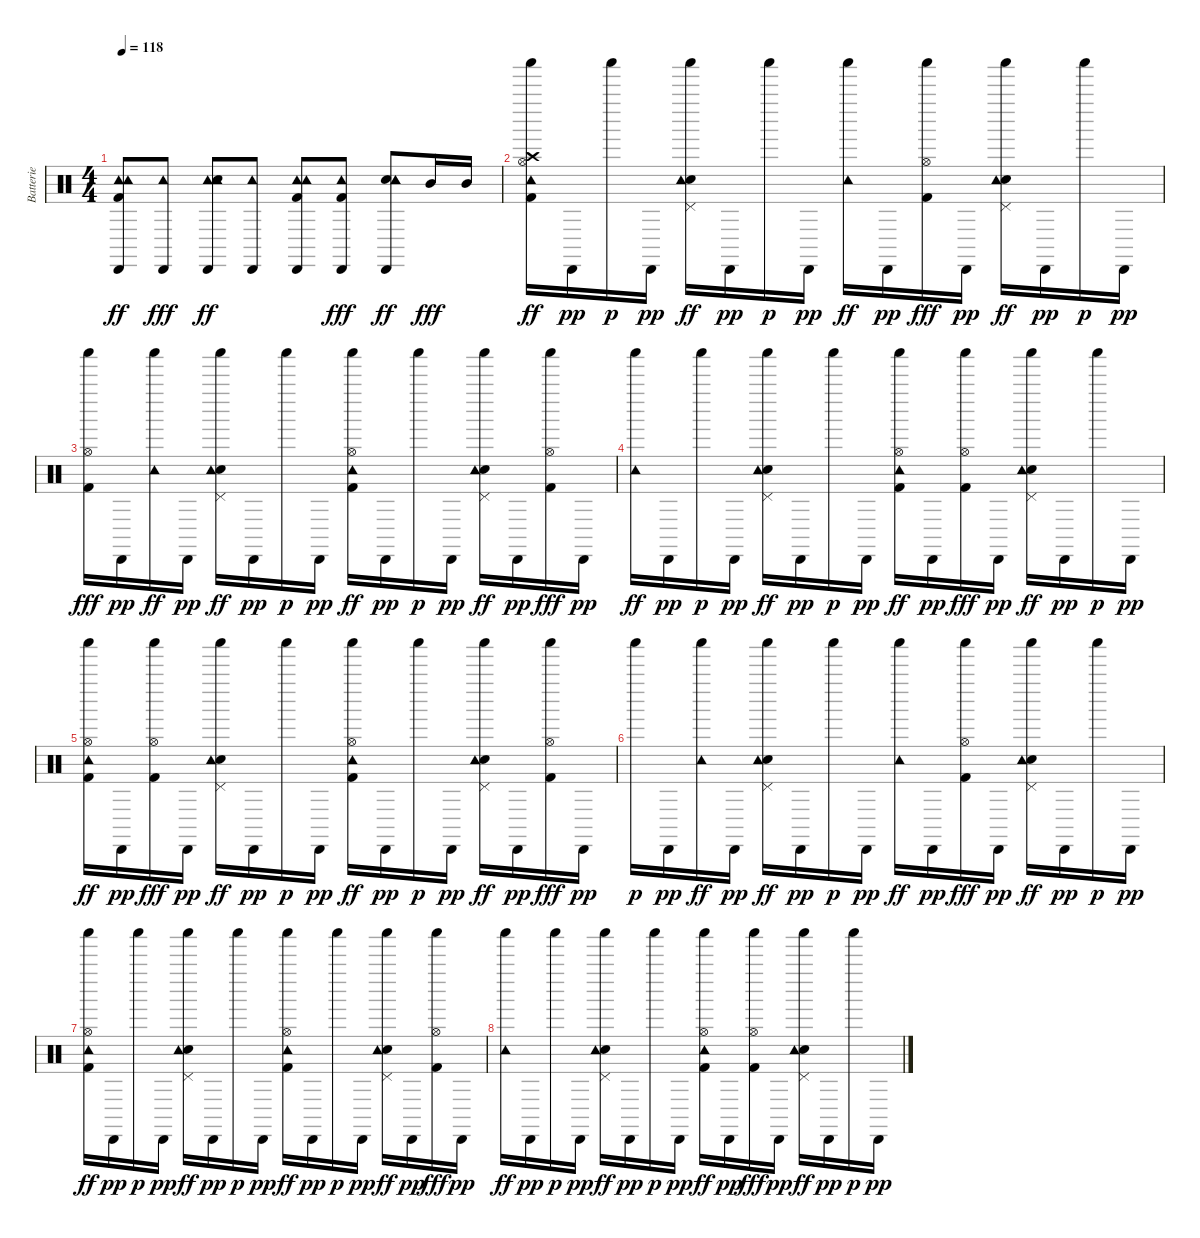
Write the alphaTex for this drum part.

\track ("Batterie" "Batterie") {instrument percussion}
\staff {score}
\articulation defaults
\ts (4 4)
\tempo 118
\clef neutral
\ks c
("Kick (hit) 2" "Cabasa (hit)" "Tambourine (hit)" "Tambourine (hit)").8{dy ff} ("Cabasa (hit)" "Tambourine (hit)").8{dy fff} ("Tambourine (hit)" "Cabasa (hit)" "Snare (hit) 2" "Tambourine (hit)").8{dy ff} ("Tambourine (hit)" "Cabasa (hit)").8 ("Tambourine (hit)" "Cabasa (hit)" "Kick (hit) 2" "Tambourine (hit)").8 ("Tambourine (hit)" "Cabasa (hit)" "Kick (hit) 2").8{dy fff} ("Cabasa (hit)" "Snare (hit) 2" "Tambourine (hit)" "Tambourine (hit)").8{dy ff} "Mid Tom (hit)".16{dy fff} "Mid Tom (hit)".16 |
("Crash high (hit)" "Hi-Hat (open)" "Shaker (hit)" "Kick (hit) 2" "Tambourine (hit)").16{dy ff} "Cabasa (hit)".16{dy pp} "Shaker (hit)".16{dy p} "Cabasa (hit)".16{dy pp} ("Shaker (hit)" "Pedal Hi-Hat (hit)" "Snare (hit) 2" "Tambourine (hit)").16{dy ff} "Cabasa (hit)".16{dy pp} "Shaker (hit)".16{dy p} "Cabasa (hit)".16{dy pp} ("Shaker (hit)" "Tambourine (hit)").16{dy ff} "Cabasa (hit)".16{dy pp} ("Hi-Hat (open)" "Shaker (hit)" "Kick (hit) 2").16{dy fff} "Cabasa (hit)".16{dy pp} ("Pedal Hi-Hat (hit)" "Shaker (hit)" "Snare (hit) 2" "Tambourine (hit)").16{dy ff} "Cabasa (hit)".16{dy pp} "Shaker (hit)".16{dy p} "Cabasa (hit)".16{dy pp} |
("Shaker (hit)" "Hi-Hat (open)" "Kick (hit) 2").16{dy fff} "Cabasa (hit)".16{dy pp} ("Shaker (hit)" "Tambourine (hit)").16{dy ff} "Cabasa (hit)".16{dy pp} ("Pedal Hi-Hat (hit)" "Shaker (hit)" "Snare (hit) 2" "Tambourine (hit)").16{dy ff} "Cabasa (hit)".16{dy pp} "Shaker (hit)".16{dy p} "Cabasa (hit)".16{dy pp} ("Hi-Hat (open)" "Shaker (hit)" "Kick (hit) 2" "Tambourine (hit)").16{dy ff} "Cabasa (hit)".16{dy pp} "Shaker (hit)".16{dy p} "Cabasa (hit)".16{dy pp} ("Pedal Hi-Hat (hit)" "Shaker (hit)" "Snare (hit) 2" "Tambourine (hit)").16{dy ff} "Cabasa (hit)".16{dy pp} ("Hi-Hat (open)" "Shaker (hit)" "Kick (hit) 2").16{dy fff} "Cabasa (hit)".16{dy pp} |
("Shaker (hit)" "Tambourine (hit)").16{dy ff} "Cabasa (hit)".16{dy pp} "Shaker (hit)".16{dy p} "Cabasa (hit)".16{dy pp} ("Shaker (hit)" "Pedal Hi-Hat (hit)" "Snare (hit) 2" "Tambourine (hit)").16{dy ff} "Cabasa (hit)".16{dy pp} "Shaker (hit)".16{dy p} "Cabasa (hit)".16{dy pp} ("Hi-Hat (open)" "Shaker (hit)" "Kick (hit) 2" "Tambourine (hit)").16{dy ff} "Cabasa (hit)".16{dy pp} ("Shaker (hit)" "Hi-Hat (open)" "Kick (hit) 2").16{dy fff} "Cabasa (hit)".16{dy pp} ("Shaker (hit)" "Pedal Hi-Hat (hit)" "Snare (hit) 2" "Tambourine (hit)").16{dy ff} "Cabasa (hit)".16{dy pp} "Shaker (hit)".16{dy p} "Cabasa (hit)".16{dy pp} |
("Shaker (hit)" "Hi-Hat (open)" "Kick (hit) 2" "Tambourine (hit)").16{dy ff} "Cabasa (hit)".16{dy pp} ("Hi-Hat (open)" "Shaker (hit)" "Kick (hit) 2").16{dy fff} "Cabasa (hit)".16{dy pp} ("Shaker (hit)" "Pedal Hi-Hat (hit)" "Snare (hit) 2" "Tambourine (hit)").16{dy ff} "Cabasa (hit)".16{dy pp} "Shaker (hit)".16{dy p} "Cabasa (hit)".16{dy pp} ("Shaker (hit)" "Hi-Hat (open)" "Kick (hit) 2" "Tambourine (hit)").16{dy ff} "Cabasa (hit)".16{dy pp} "Shaker (hit)".16{dy p} "Cabasa (hit)".16{dy pp} ("Shaker (hit)" "Pedal Hi-Hat (hit)" "Snare (hit) 2" "Tambourine (hit)").16{dy ff} "Cabasa (hit)".16{dy pp} ("Shaker (hit)" "Hi-Hat (open)" "Kick (hit) 2").16{dy fff} "Cabasa (hit)".16{dy pp} |
"Shaker (hit)".16{dy p} "Cabasa (hit)".16{dy pp} ("Shaker (hit)" "Tambourine (hit)").16{dy ff} "Cabasa (hit)".16{dy pp} ("Shaker (hit)" "Pedal Hi-Hat (hit)" "Snare (hit) 2" "Tambourine (hit)").16{dy ff} "Cabasa (hit)".16{dy pp} "Shaker (hit)".16{dy p} "Cabasa (hit)".16{dy pp} ("Shaker (hit)" "Tambourine (hit)").16{dy ff} "Cabasa (hit)".16{dy pp} ("Hi-Hat (open)" "Shaker (hit)" "Kick (hit) 2").16{dy fff} "Cabasa (hit)".16{dy pp} ("Pedal Hi-Hat (hit)" "Shaker (hit)" "Snare (hit) 2" "Tambourine (hit)").16{dy ff} "Cabasa (hit)".16{dy pp} "Shaker (hit)".16{dy p} "Cabasa (hit)".16{dy pp} |
("Shaker (hit)" "Hi-Hat (open)" "Kick (hit) 2" "Tambourine (hit)").16{dy ff} "Cabasa (hit)".16{dy pp} "Shaker (hit)".16{dy p} "Cabasa (hit)".16{dy pp} ("Shaker (hit)" "Pedal Hi-Hat (hit)" "Snare (hit) 2" "Tambourine (hit)").16{dy ff} "Cabasa (hit)".16{dy pp} "Shaker (hit)".16{dy p} "Cabasa (hit)".16{dy pp} ("Hi-Hat (open)" "Shaker (hit)" "Kick (hit) 2" "Tambourine (hit)").16{dy ff} "Cabasa (hit)".16{dy pp} "Shaker (hit)".16{dy p} "Cabasa (hit)".16{dy pp} ("Pedal Hi-Hat (hit)" "Shaker (hit)" "Snare (hit) 2" "Tambourine (hit)").16{dy ff} "Cabasa (hit)".16{dy pp} ("Hi-Hat (open)" "Shaker (hit)" "Kick (hit) 2").16{dy fff} "Cabasa (hit)".16{dy pp} |
("Shaker (hit)" "Tambourine (hit)").16{dy ff} "Cabasa (hit)".16{dy pp} "Shaker (hit)".16{dy p} "Cabasa (hit)".16{dy pp} ("Shaker (hit)" "Pedal Hi-Hat (hit)" "Snare (hit) 2" "Tambourine (hit)").16{dy ff} "Cabasa (hit)".16{dy pp} "Shaker (hit)".16{dy p} "Cabasa (hit)".16{dy pp} ("Hi-Hat (open)" "Shaker (hit)" "Kick (hit) 2" "Tambourine (hit)").16{dy ff} "Cabasa (hit)".16{dy pp} ("Hi-Hat (open)" "Shaker (hit)" "Kick (hit) 2").16{dy fff} "Cabasa (hit)".16{dy pp} ("Pedal Hi-Hat (hit)" "Shaker (hit)" "Snare (hit) 2" "Tambourine (hit)").16{dy ff} "Cabasa (hit)".16{dy pp} "Shaker (hit)".16{dy p} "Cabasa (hit)".16{dy pp}
